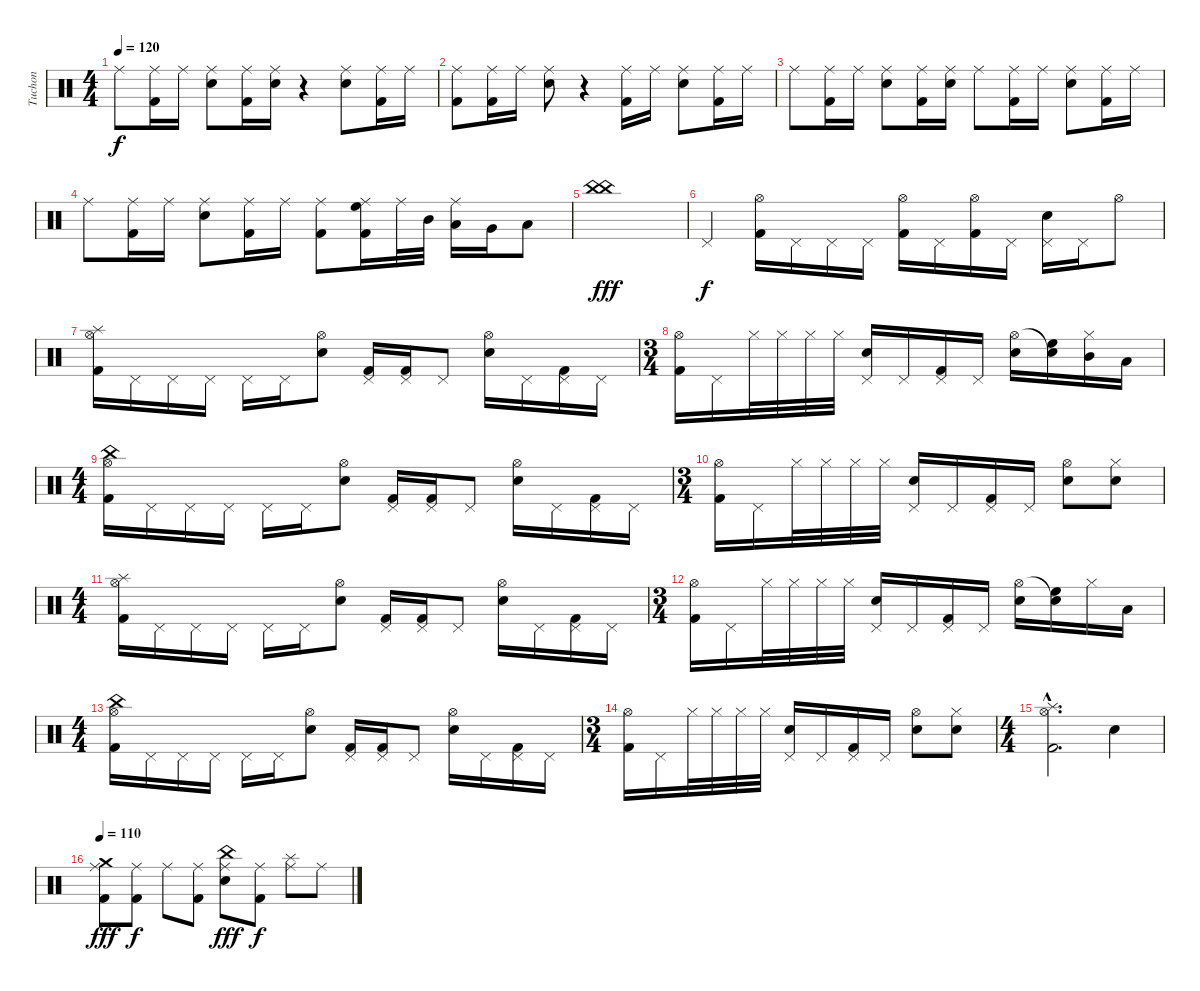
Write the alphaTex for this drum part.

\track ("Tuchon" "Tuchon") {instrument percussion}
\staff {score}
\articulation defaults
\ts (4 4)
\tempo 120
\clef neutral
\ks c "Ride (middle)".8{dy f}
("Ride (middle)" "Kick (hit) 2").16 "Ride (middle)".16 ("Ride (middle)" "Electric Snare (hit)").8 ("Ride (middle)" "Kick (hit) 2").16 ("Ride (middle)" "Electric Snare (hit)").16 r.4 ("Ride (middle)" "Electric Snare (hit)").8 ("Ride (middle)" "Kick (hit) 2").16 "Ride (middle)".16 |
("Ride (middle)" "Kick (hit) 2").8 ("Ride (middle)" "Kick (hit) 2").16 "Ride (middle)".16 ("Ride (middle)" "Electric Snare (hit)").8 r.4 ("Ride (middle)" "Kick (hit) 2").16 "Ride (middle)".16 ("Ride (middle)" "Electric Snare (hit)").8 ("Ride (middle)" "Kick (hit) 2").16 "Ride (middle)".16 |
"Ride (middle)".8 ("Ride (middle)" "Kick (hit) 2").16 "Ride (middle)".16 ("Ride (middle)" "Electric Snare (hit)").8 ("Ride (middle)" "Kick (hit) 2").16 ("Ride (middle)" "Electric Snare (hit)").16 "Ride (middle)".8 ("Ride (middle)" "Kick (hit) 2").16 "Ride (middle)".16 ("Ride (middle)" "Electric Snare (hit)").8 ("Ride (middle)" "Kick (hit) 2").16 "Ride (middle)".16 |
"Ride (middle)".8 ("Ride (middle)" "Kick (hit) 2").16 "Ride (middle)".16 ("Ride (middle)" "Electric Snare (hit)").8 ("Ride (middle)" "Kick (hit) 2").16 "Ride (middle)".16 ("Ride (middle)" "Kick (hit) 2").8 ("Ride (middle)" "High Floor Tom (hit)" "Kick (hit) 2").16 "Ride (middle)".32 "Mid Tom (hit)".32 ("Ride (middle)" "Low Tom (hit)").16 "Very Low Tom (hit)".16 "Low Floor Tom (hit)".8 |
("China (hit)" "China (hit)").1{dy fff} |
"Pedal Hi-Hat (hit)".4{dy f} ("Hi-Hat (open)" "Kick (hit) 2").16 "Pedal Hi-Hat (hit)".16 "Pedal Hi-Hat (hit)".16 "Pedal Hi-Hat (hit)".16 ("Hi-Hat (open)" "Kick (hit) 2").16 "Pedal Hi-Hat (hit)".16 ("Hi-Hat (open)" "Kick (hit) 2").16 "Pedal Hi-Hat (hit)".16 ("Pedal Hi-Hat (hit)" "Electric Snare (hit)").16 "Pedal Hi-Hat (hit)".16 "Hi-Hat (open)".8 |
("Splash (hit)" "Hi-Hat (open)" "Kick (hit) 2").16 "Pedal Hi-Hat (hit)".16 "Pedal Hi-Hat (hit)".16 "Pedal Hi-Hat (hit)".16 "Pedal Hi-Hat (hit)".16 "Pedal Hi-Hat (hit)".16 ("Hi-Hat (open)" "Electric Snare (hit)").8 ("Pedal Hi-Hat (hit)" "Kick (hit) 2").16 ("Pedal Hi-Hat (hit)" "Kick (hit) 2").16 "Pedal Hi-Hat (hit)".8 ("Hi-Hat (open)" "Electric Snare (hit)").16 "Pedal Hi-Hat (hit)".16 ("Pedal Hi-Hat (hit)" "Kick (hit) 2").16 "Pedal Hi-Hat (hit)".16 |
\ts (3 4)
("Hi-Hat (open)" "Kick (hit) 2").16 "Pedal Hi-Hat (hit)".16 "Hi-Hat (closed)".32 "Hi-Hat (closed)".32 "Hi-Hat (closed)".32 "Hi-Hat (closed)".32 ("Pedal Hi-Hat (hit)" "Electric Snare (hit)").16 "Pedal Hi-Hat (hit)".16 ("Pedal Hi-Hat (hit)" "Kick (hit) 2").16 "Pedal Hi-Hat (hit)".16 ("Hi-Hat (open)" "Electric Snare (hit)").16 ("Snare (hit)"{t} "High Floor Tom (hit)").16 ("Hi-Hat (closed)" "Mid Tom (hit)").16 "Low Tom (hit)".16 |
\ts (4 4)
("China (hit)" "Hi-Hat (open)" "Kick (hit) 2").16 "Pedal Hi-Hat (hit)".16 "Pedal Hi-Hat (hit)".16 "Pedal Hi-Hat (hit)".16 "Pedal Hi-Hat (hit)".16 "Pedal Hi-Hat (hit)".16 ("Hi-Hat (open)" "Electric Snare (hit)").8 ("Pedal Hi-Hat (hit)" "Kick (hit) 2").16 ("Pedal Hi-Hat (hit)" "Kick (hit) 2").16 "Pedal Hi-Hat (hit)".8 ("Hi-Hat (open)" "Electric Snare (hit)").16 "Pedal Hi-Hat (hit)".16 ("Pedal Hi-Hat (hit)" "Kick (hit) 2").16 "Pedal Hi-Hat (hit)".16 |
\ts (3 4)
("Hi-Hat (open)" "Kick (hit) 2").16 "Pedal Hi-Hat (hit)".16 "Hi-Hat (closed)".32 "Hi-Hat (closed)".32 "Hi-Hat (closed)".32 "Hi-Hat (closed)".32 ("Pedal Hi-Hat (hit)" "Electric Snare (hit)").16 "Pedal Hi-Hat (hit)".16 ("Pedal Hi-Hat (hit)" "Kick (hit) 2").16 "Pedal Hi-Hat (hit)".16 ("Hi-Hat (open)" "Electric Snare (hit)").8 ("Hi-Hat (closed)" "Electric Snare (hit)").8 |
\ts (4 4)
("Splash (hit)" "Hi-Hat (open)" "Kick (hit) 2").16 "Pedal Hi-Hat (hit)".16 "Pedal Hi-Hat (hit)".16 "Pedal Hi-Hat (hit)".16 "Pedal Hi-Hat (hit)".16 "Pedal Hi-Hat (hit)".16 ("Hi-Hat (open)" "Electric Snare (hit)").8 ("Pedal Hi-Hat (hit)" "Kick (hit) 2").16 ("Pedal Hi-Hat (hit)" "Kick (hit) 2").16 "Pedal Hi-Hat (hit)".8 ("Hi-Hat (open)" "Electric Snare (hit)").16 "Pedal Hi-Hat (hit)".16 ("Pedal Hi-Hat (hit)" "Kick (hit) 2").16 "Pedal Hi-Hat (hit)".16 |
\ts (3 4)
("Hi-Hat (open)" "Kick (hit) 2").16 "Pedal Hi-Hat (hit)".16 "Hi-Hat (closed)".32 "Hi-Hat (closed)".32 "Hi-Hat (closed)".32 "Hi-Hat (closed)".32 ("Pedal Hi-Hat (hit)" "Electric Snare (hit)").16 "Pedal Hi-Hat (hit)".16 ("Pedal Hi-Hat (hit)" "Kick (hit) 2").16 "Pedal Hi-Hat (hit)".16 ("Hi-Hat (open)" "Electric Snare (hit)").16 ("Snare (hit)"{t} "High Floor Tom (hit)").16 "Hi-Hat (closed)".16 "Low Tom (hit)".16 |
\ts (4 4)
("China (hit)" "Hi-Hat (open)" "Kick (hit) 2").16 "Pedal Hi-Hat (hit)".16 "Pedal Hi-Hat (hit)".16 "Pedal Hi-Hat (hit)".16 "Pedal Hi-Hat (hit)".16 "Pedal Hi-Hat (hit)".16 ("Hi-Hat (open)" "Electric Snare (hit)").8 ("Pedal Hi-Hat (hit)" "Kick (hit) 2").16 ("Pedal Hi-Hat (hit)" "Kick (hit) 2").16 "Pedal Hi-Hat (hit)".8 ("Hi-Hat (open)" "Electric Snare (hit)").16 "Pedal Hi-Hat (hit)".16 ("Pedal Hi-Hat (hit)" "Kick (hit) 2").16 "Pedal Hi-Hat (hit)".16 |
\ts (3 4)
("Hi-Hat (open)" "Kick (hit) 2").16 "Pedal Hi-Hat (hit)".16 "Hi-Hat (closed)".32 "Hi-Hat (closed)".32 "Hi-Hat (closed)".32 "Hi-Hat (closed)".32 ("Pedal Hi-Hat (hit)" "Electric Snare (hit)").16 "Pedal Hi-Hat (hit)".16 ("Pedal Hi-Hat (hit)" "Kick (hit) 2").16 "Pedal Hi-Hat (hit)".16 ("Hi-Hat (open)" "Electric Snare (hit)").8 ("Hi-Hat (closed)" "Electric Snare (hit)").8 |
\ts (4 4)
("Hi-Hat (open)"{hac} "Splash (hit)"{hac} "Kick (hit) 2"{hac}).2{d} "Electric Snare (hit)".4 |
\tempo 110
("Crash medium (hit)" "Ride (middle)" "Kick (hit) 2").8{dy fff} ("Ride (middle)" "Kick (hit) 2").8{dy f} "Ride (middle)".8 ("Ride (middle)" "Kick (hit) 2").8 ("China (hit)" "Ride (middle)" "Electric Snare (hit)").8{dy fff} ("Ride (middle)" "Kick (hit) 2").8{dy f} ("Splash (hit)" "Ride (middle)").8 "Ride (middle)".8
